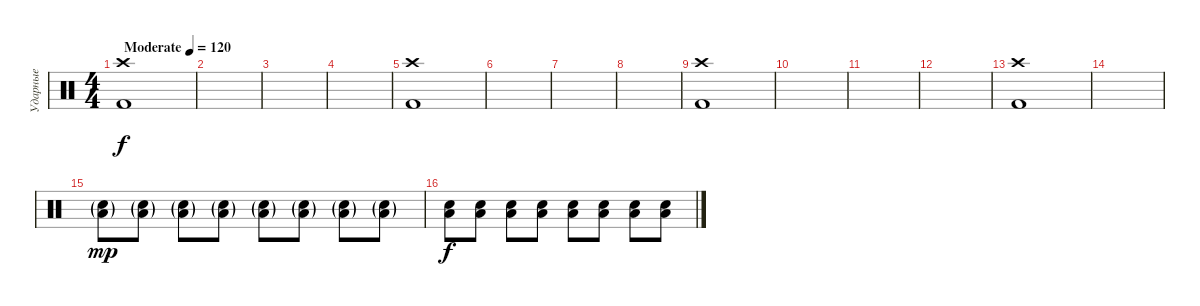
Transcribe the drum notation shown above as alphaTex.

\track ("Ударные" "Ударные") {instrument percussion}
\staff {score}
\articulation defaults
\ts (4 4)
\tempo (120 "Moderate")
\clef neutral
\ks c
("Kick (hit) 2" "Crash high (hit)").1{dy f} |
|
|
|
("Kick (hit) 2" "Crash high (hit)").1 |
|
|
|
("Kick (hit) 2" "Crash high (hit)").1 |
|
|
|
("Kick (hit) 2" "Crash high (hit)").1 |
|
("Low Floor Tom (hit)"{g} "Snare (hit) 2"{g}).8{dy mp} ("Low Floor Tom (hit)"{g} "Snare (hit) 2"{g}).8 ("Low Floor Tom (hit)"{g} "Snare (hit) 2"{g}).8 ("Low Floor Tom (hit)"{g} "Snare (hit) 2"{g}).8 ("Low Floor Tom (hit)"{g} "Snare (hit) 2"{g}).8 ("Low Floor Tom (hit)"{g} "Snare (hit) 2"{g}).8 ("Low Floor Tom (hit)"{g} "Snare (hit) 2"{g}).8 ("Low Floor Tom (hit)"{g} "Snare (hit) 2"{g}).8 |
("Low Floor Tom (hit)" "Snare (hit) 2").8{dy f} ("Low Floor Tom (hit)" "Snare (hit) 2").8 ("Low Floor Tom (hit)" "Snare (hit) 2").8 ("Low Floor Tom (hit)" "Snare (hit) 2").8 ("Low Floor Tom (hit)" "Snare (hit) 2").8 ("Low Floor Tom (hit)" "Snare (hit) 2").8 ("Low Floor Tom (hit)" "Snare (hit) 2").8 ("Low Floor Tom (hit)" "Snare (hit) 2").8
